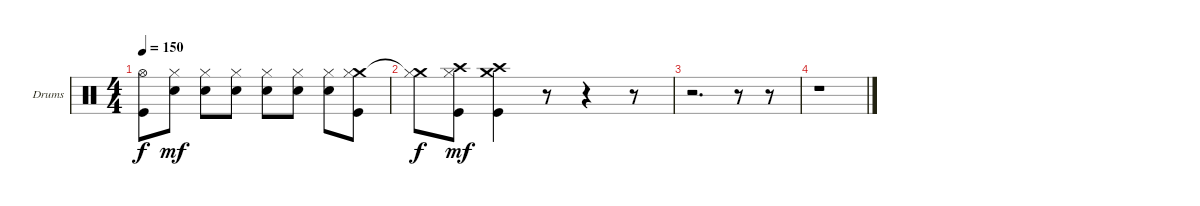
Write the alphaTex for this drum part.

\bracketExtendMode groupsimilarinstruments
\firstSystemTrackNameOrientation horizontal
\otherSystemsTrackNameOrientation horizontal
\track ("Drumkit" "Drums") {instrument percussion}
\staff {score}
\articulation defaults
\ts (4 4)
\tempo 150
\clef neutral
\ks c
("Hi-Hat (open)"{t} "Kick (hit)").8{dy f} ("Hi-Hat (closed)" "Snare (hit) 2").8{dy mf} ("Hi-Hat (closed)" "Snare (hit) 2").8 ("Hi-Hat (closed)" "Snare (hit) 2").8 ("Hi-Hat (closed)" "Snare (hit) 2").8 ("Hi-Hat (closed)" "Snare (hit) 2").8 ("Hi-Hat (closed)" "Snare (hit) 2").8 ("Crash medium (hit)" "Hi-Hat (closed)" "Kick (hit)").8 |
("Crash medium (hit)"{t} "Hi-Hat (closed)").8{dy f} ("Crash high (hit)" "Hi-Hat (closed)" "Kick (hit)").8{dy mf} ("Crash high (hit)" "Crash medium (hit)" "Kick (hit)").4 r.8 r.4 r.8 |
r.2{d} r.8 r.8 |
r.1
